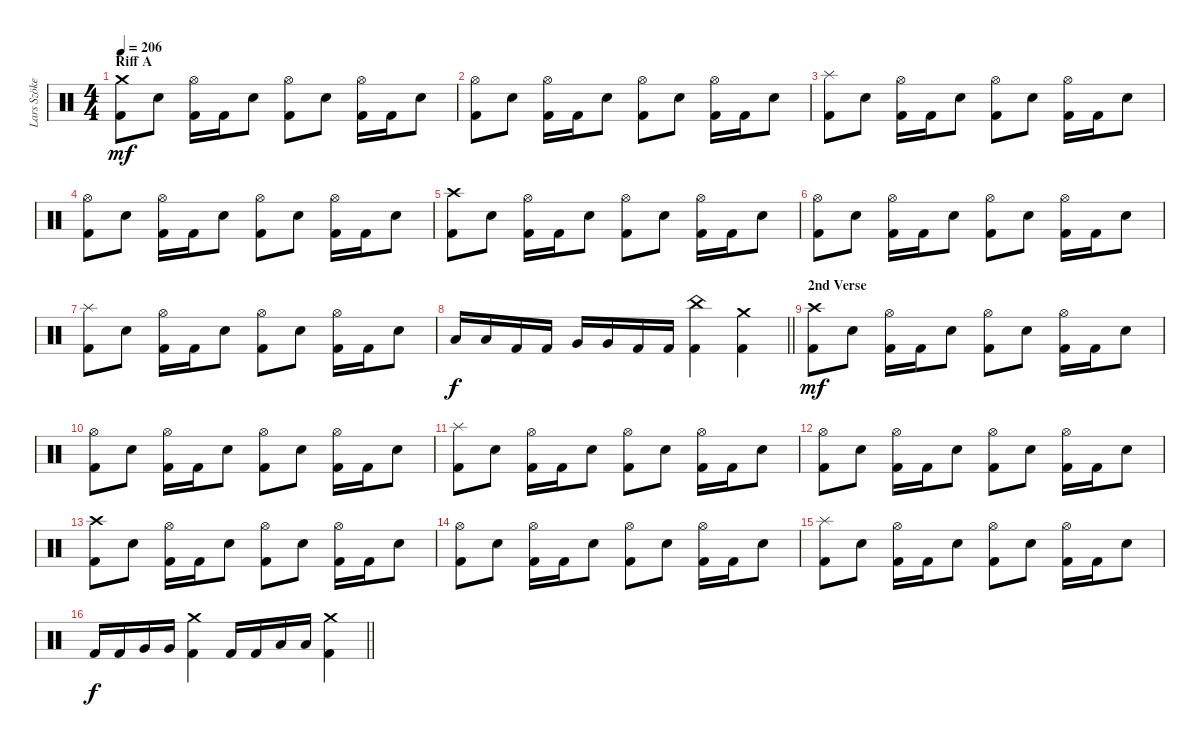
\track ("Lars Szöke" "Lars Szöke") {instrument percussion}
\staff {score}
\articulation defaults
\ts (4 4)
\section ("" "Riff A")
\tempo 206
\clef neutral
\ks c
("Crash medium (hit)" "Kick (hit) 2").8{dy mf} "Snare (hit) 2".8 ("Hi-Hat (open)" "Kick (hit) 2").16 "Kick (hit) 2".16 "Snare (hit) 2".8 ("Hi-Hat (open)" "Kick (hit) 2").8 "Snare (hit) 2".8 ("Hi-Hat (open)" "Kick (hit) 2").16 "Kick (hit) 2".16 "Snare (hit) 2".8 |
("Hi-Hat (open)" "Kick (hit) 2").8 "Snare (hit) 2".8 ("Hi-Hat (open)" "Kick (hit) 2").16 "Kick (hit) 2".16 "Snare (hit) 2".8 ("Hi-Hat (open)" "Kick (hit) 2").8 "Snare (hit) 2".8 ("Hi-Hat (open)" "Kick (hit) 2").16 "Kick (hit) 2".16 "Snare (hit) 2".8 |
("Splash (hit)" "Kick (hit) 2").8 "Snare (hit) 2".8 ("Hi-Hat (open)" "Kick (hit) 2").16 "Kick (hit) 2".16 "Snare (hit) 2".8 ("Hi-Hat (open)" "Kick (hit) 2").8 "Snare (hit) 2".8 ("Hi-Hat (open)" "Kick (hit) 2").16 "Kick (hit) 2".16 "Snare (hit) 2".8 |
("Hi-Hat (open)" "Kick (hit) 2").8 "Snare (hit) 2".8 ("Hi-Hat (open)" "Kick (hit) 2").16 "Kick (hit) 2".16 "Snare (hit) 2".8 ("Hi-Hat (open)" "Kick (hit) 2").8 "Snare (hit) 2".8 ("Hi-Hat (open)" "Kick (hit) 2").16 "Kick (hit) 2".16 "Snare (hit) 2".8 |
("Crash high (hit)" "Kick (hit) 2").8 "Snare (hit) 2".8 ("Hi-Hat (open)" "Kick (hit) 2").16 "Kick (hit) 2".16 "Snare (hit) 2".8 ("Hi-Hat (open)" "Kick (hit) 2").8 "Snare (hit) 2".8 ("Hi-Hat (open)" "Kick (hit) 2").16 "Kick (hit) 2".16 "Snare (hit) 2".8 |
("Hi-Hat (open)" "Kick (hit) 2").8 "Snare (hit) 2".8 ("Hi-Hat (open)" "Kick (hit) 2").16 "Kick (hit) 2".16 "Snare (hit) 2".8 ("Hi-Hat (open)" "Kick (hit) 2").8 "Snare (hit) 2".8 ("Hi-Hat (open)" "Kick (hit) 2").16 "Kick (hit) 2".16 "Snare (hit) 2".8 |
("Splash (hit)" "Kick (hit) 2").8 "Snare (hit) 2".8 ("Hi-Hat (open)" "Kick (hit) 2").16 "Kick (hit) 2".16 "Snare (hit) 2".8 ("Hi-Hat (open)" "Kick (hit) 2").8 "Snare (hit) 2".8 ("Hi-Hat (open)" "Kick (hit) 2").16 "Kick (hit) 2".16 "Snare (hit) 2".8 |
\barLineRight lightlight "Low Tom (hit)".16{dy f} "Low Tom (hit)".16 "Kick (hit) 2".16 "Kick (hit) 2".16 "Very Low Tom (hit)".16 "Very Low Tom (hit)".16 "Kick (hit) 2".16 "Kick (hit) 2".16
("China (hit)" "Kick (hit) 2").4 ("Crash medium (hit)" "Kick (hit) 2").4 |
\section ("" "2nd Verse")
("Crash high (hit)" "Kick (hit) 2").8{dy mf} "Snare (hit) 2".8 ("Hi-Hat (open)" "Kick (hit) 2").16 "Kick (hit) 2".16 "Snare (hit) 2".8 ("Hi-Hat (open)" "Kick (hit) 2").8 "Snare (hit) 2".8 ("Hi-Hat (open)" "Kick (hit) 2").16 "Kick (hit) 2".16 "Snare (hit) 2".8 |
("Hi-Hat (open)" "Kick (hit) 2").8 "Snare (hit) 2".8 ("Hi-Hat (open)" "Kick (hit) 2").16 "Kick (hit) 2".16 "Snare (hit) 2".8 ("Hi-Hat (open)" "Kick (hit) 2").8 "Snare (hit) 2".8 ("Hi-Hat (open)" "Kick (hit) 2").16 "Kick (hit) 2".16 "Snare (hit) 2".8 |
("Splash (hit)" "Kick (hit) 2").8 "Snare (hit) 2".8 ("Hi-Hat (open)" "Kick (hit) 2").16 "Kick (hit) 2".16 "Snare (hit) 2".8 ("Hi-Hat (open)" "Kick (hit) 2").8 "Snare (hit) 2".8 ("Hi-Hat (open)" "Kick (hit) 2").16 "Kick (hit) 2".16 "Snare (hit) 2".8 |
("Hi-Hat (open)" "Kick (hit) 2").8 "Snare (hit) 2".8 ("Hi-Hat (open)" "Kick (hit) 2").16 "Kick (hit) 2".16 "Snare (hit) 2".8 ("Hi-Hat (open)" "Kick (hit) 2").8 "Snare (hit) 2".8 ("Hi-Hat (open)" "Kick (hit) 2").16 "Kick (hit) 2".16 "Snare (hit) 2".8 |
("Crash high (hit)" "Kick (hit) 2").8 "Snare (hit) 2".8 ("Hi-Hat (open)" "Kick (hit) 2").16 "Kick (hit) 2".16 "Snare (hit) 2".8 ("Hi-Hat (open)" "Kick (hit) 2").8 "Snare (hit) 2".8 ("Hi-Hat (open)" "Kick (hit) 2").16 "Kick (hit) 2".16 "Snare (hit) 2".8 |
("Hi-Hat (open)" "Kick (hit) 2").8 "Snare (hit) 2".8 ("Hi-Hat (open)" "Kick (hit) 2").16 "Kick (hit) 2".16 "Snare (hit) 2".8 ("Hi-Hat (open)" "Kick (hit) 2").8 "Snare (hit) 2".8 ("Hi-Hat (open)" "Kick (hit) 2").16 "Kick (hit) 2".16 "Snare (hit) 2".8 |
("Splash (hit)" "Kick (hit) 2").8 "Snare (hit) 2".8 ("Hi-Hat (open)" "Kick (hit) 2").16 "Kick (hit) 2".16 "Snare (hit) 2".8 ("Hi-Hat (open)" "Kick (hit) 2").8 "Snare (hit) 2".8 ("Hi-Hat (open)" "Kick (hit) 2").16 "Kick (hit) 2".16 "Snare (hit) 2".8 |
\barLineRight lightlight "Kick (hit) 2".16{dy f} "Kick (hit) 2".16 "Very Low Tom (hit)".16 "Very Low Tom (hit)".16
("Crash medium (hit)" "Kick (hit) 2").4 "Kick (hit) 2".16 "Kick (hit) 2".16 "Low Floor Tom (hit)".16 "Low Floor Tom (hit)".16 ("Crash medium (hit)" "Kick (hit) 2").4
